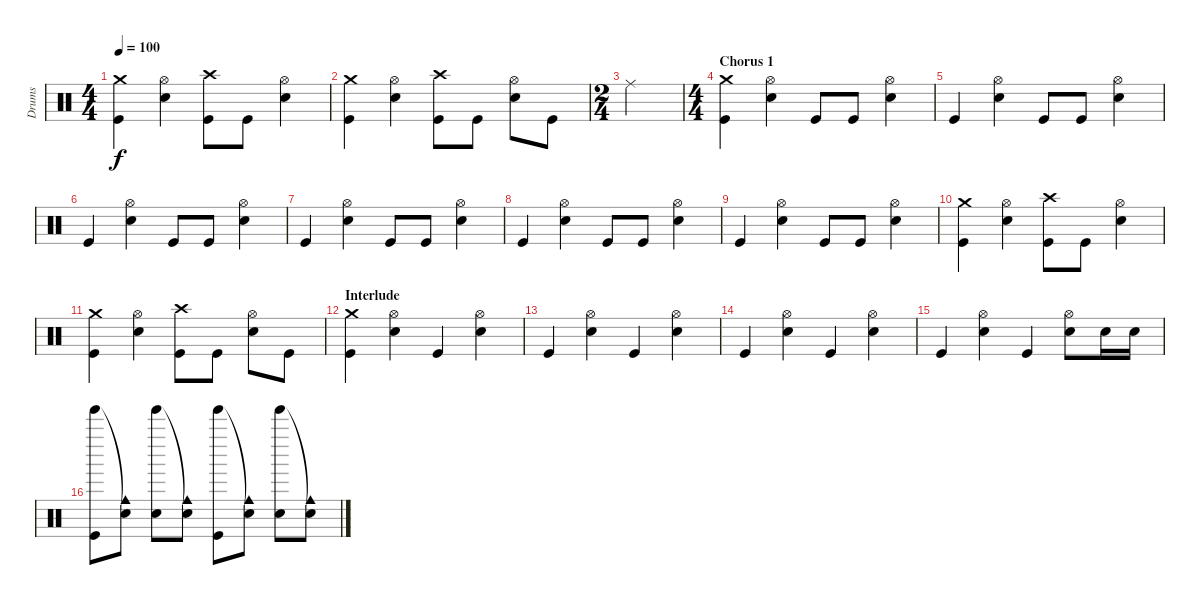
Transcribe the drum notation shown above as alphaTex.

\track ("Drums" "Drums") {instrument percussion}
\staff {score}
\articulation defaults
\ts (4 4)
\tempo 100
\clef neutral
\ks c
("Crash medium (hit)" "Kick (hit)").4{dy f} ("Hi-Hat (open)" "Electric Snare (hit)").4 ("Crash high (hit)" "Kick (hit)").8 "Kick (hit)".8 ("Hi-Hat (open)" "Electric Snare (hit)").4 |
("Crash medium (hit)" "Kick (hit)").4 ("Hi-Hat (open)" "Electric Snare (hit)").4 ("Crash high (hit)" "Kick (hit)").8 "Kick (hit)".8 ("Hi-Hat (open)" "Electric Snare (hit)").8 "Kick (hit)".8 |
\ts (2 4)
"Ride (middle)".2 |
\ts (4 4)
\section ("" "Chorus 1")
("Crash medium (hit)" "Kick (hit)").4 ("Hi-Hat (open)" "Electric Snare (hit)").4 "Kick (hit)".8 "Kick (hit)".8 ("Hi-Hat (open)" "Electric Snare (hit)").4 |
"Kick (hit)".4 ("Hi-Hat (open)" "Electric Snare (hit)").4 "Kick (hit)".8 "Kick (hit)".8 ("Hi-Hat (open)" "Electric Snare (hit)").4 |
"Kick (hit)".4 ("Hi-Hat (open)" "Electric Snare (hit)").4 "Kick (hit)".8 "Kick (hit)".8 ("Hi-Hat (open)" "Electric Snare (hit)").4 |
"Kick (hit)".4 ("Hi-Hat (open)" "Electric Snare (hit)").4 "Kick (hit)".8 "Kick (hit)".8 ("Hi-Hat (open)" "Electric Snare (hit)").4 |
"Kick (hit)".4 ("Hi-Hat (open)" "Electric Snare (hit)").4 "Kick (hit)".8 "Kick (hit)".8 ("Hi-Hat (open)" "Electric Snare (hit)").4 |
"Kick (hit)".4 ("Hi-Hat (open)" "Electric Snare (hit)").4 "Kick (hit)".8 "Kick (hit)".8 ("Hi-Hat (open)" "Electric Snare (hit)").4 |
("Crash medium (hit)" "Kick (hit)").4 ("Hi-Hat (open)" "Electric Snare (hit)").4 ("Crash high (hit)" "Kick (hit)").8 "Kick (hit)".8 ("Hi-Hat (open)" "Electric Snare (hit)").4 |
("Crash medium (hit)" "Kick (hit)").4 ("Hi-Hat (open)" "Electric Snare (hit)").4 ("Crash high (hit)" "Kick (hit)").8 "Kick (hit)".8 ("Hi-Hat (open)" "Electric Snare (hit)").8 "Kick (hit)".8 |
\section ("" "Interlude")
("Crash medium (hit)" "Kick (hit)").4 ("Hi-Hat (open)" "Electric Snare (hit)").4 "Kick (hit)".4 ("Hi-Hat (open)" "Electric Snare (hit)").4 |
"Kick (hit)".4 ("Hi-Hat (open)" "Electric Snare (hit)").4 "Kick (hit)".4 ("Hi-Hat (open)" "Electric Snare (hit)").4 |
"Kick (hit)".4 ("Hi-Hat (open)" "Electric Snare (hit)").4 "Kick (hit)".4 ("Hi-Hat (open)" "Electric Snare (hit)").4 |
"Kick (hit)".4 ("Hi-Hat (open)" "Electric Snare (hit)").4 "Kick (hit)".4 ("Hi-Hat (open)" "Electric Snare (hit)").8 "Electric Snare (hit)".16 "Electric Snare (hit)".16 |
("Tinkle Bell (hit)" "Kick (hit)").8 ("Snare (hit)"{t} "Cowbell medium (hit)").8 ("Tinkle Bell (hit)" "Electric Snare (hit)").8 ("Snare (hit)"{t} "Cowbell medium (hit)").8 ("Tinkle Bell (hit)" "Kick (hit)").8 ("Snare (hit)"{t} "Cowbell medium (hit)").8 ("Tinkle Bell (hit)" "Electric Snare (hit)").8 ("Snare (hit)"{t} "Cowbell medium (hit)").8
